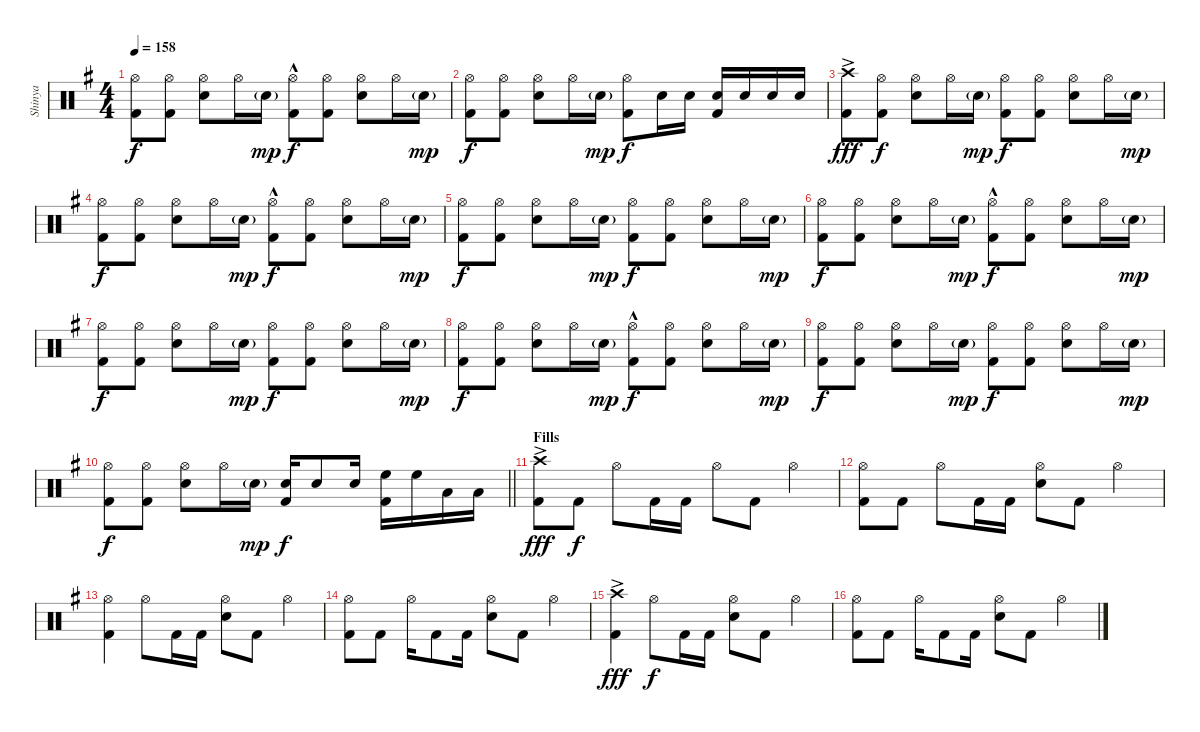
\track ("Shinya" "Shinya") {instrument percussion}
\staff {score}
\articulation defaults
\ts (4 4)
\tempo 158
\clef neutral
\ks g
("Hi-Hat (open)" "Kick (hit) 2").8{dy f} ("Hi-Hat (open)" "Kick (hit) 2").8 ("Hi-Hat (open)" "Snare (hit) 2").8 "Hi-Hat (open)".16 "Snare (hit) 2"{g}.16{dy mp} ("Hi-Hat (open)" "Kick (hit) 2"{hac}).8{dy f} ("Hi-Hat (open)" "Kick (hit) 2").8 ("Hi-Hat (open)" "Snare (hit) 2").8 "Hi-Hat (open)".16 "Snare (hit) 2"{g}.16{dy mp} |
("Hi-Hat (open)" "Kick (hit) 2").8{dy f} ("Hi-Hat (open)" "Kick (hit) 2").8 ("Hi-Hat (open)" "Snare (hit) 2").8 "Hi-Hat (open)".16 "Snare (hit) 2"{g}.16{dy mp} ("Hi-Hat (open)" "Kick (hit) 2").8{dy f} "Snare (hit) 2".16 "Snare (hit) 2".16 ("Snare (hit) 2" "Kick (hit) 2").16 "Snare (hit) 2".16 "Snare (hit) 2".16 "Snare (hit) 2".16 |
("Crash high (hit)"{ac} "Kick (hit) 2").8{dy fff} ("Hi-Hat (open)" "Kick (hit) 2").8{dy f} ("Hi-Hat (open)" "Snare (hit) 2").8 "Hi-Hat (open)".16 "Snare (hit) 2"{g}.16{dy mp} ("Hi-Hat (open)" "Kick (hit) 2").8{dy f} ("Hi-Hat (open)" "Kick (hit) 2").8 ("Hi-Hat (open)" "Snare (hit) 2").8 "Hi-Hat (open)".16 "Snare (hit) 2"{g}.16{dy mp} |
("Hi-Hat (open)" "Kick (hit) 2").8{dy f} ("Hi-Hat (open)" "Kick (hit) 2").8 ("Hi-Hat (open)" "Snare (hit) 2").8 "Hi-Hat (open)".16 "Snare (hit) 2"{g}.16{dy mp} ("Hi-Hat (open)" "Kick (hit) 2"{hac}).8{dy f} ("Hi-Hat (open)" "Kick (hit) 2").8 ("Hi-Hat (open)" "Snare (hit) 2").8 "Hi-Hat (open)".16 "Snare (hit) 2"{g}.16{dy mp} |
("Hi-Hat (open)" "Kick (hit) 2").8{dy f} ("Hi-Hat (open)" "Kick (hit) 2").8 ("Hi-Hat (open)" "Snare (hit) 2").8 "Hi-Hat (open)".16 "Snare (hit) 2"{g}.16{dy mp} ("Hi-Hat (open)" "Kick (hit) 2").8{dy f} ("Hi-Hat (open)" "Kick (hit) 2").8 ("Hi-Hat (open)" "Snare (hit) 2").8 "Hi-Hat (open)".16 "Snare (hit) 2"{g}.16{dy mp} |
("Hi-Hat (open)" "Kick (hit) 2").8{dy f} ("Hi-Hat (open)" "Kick (hit) 2").8 ("Hi-Hat (open)" "Snare (hit) 2").8 "Hi-Hat (open)".16 "Snare (hit) 2"{g}.16{dy mp} ("Hi-Hat (open)" "Kick (hit) 2"{hac}).8{dy f} ("Hi-Hat (open)" "Kick (hit) 2").8 ("Hi-Hat (open)" "Snare (hit) 2").8 "Hi-Hat (open)".16 "Snare (hit) 2"{g}.16{dy mp} |
("Hi-Hat (open)" "Kick (hit) 2").8{dy f} ("Hi-Hat (open)" "Kick (hit) 2").8 ("Hi-Hat (open)" "Snare (hit) 2").8 "Hi-Hat (open)".16 "Snare (hit) 2"{g}.16{dy mp} ("Hi-Hat (open)" "Kick (hit) 2").8{dy f} ("Hi-Hat (open)" "Kick (hit) 2").8 ("Hi-Hat (open)" "Snare (hit) 2").8 "Hi-Hat (open)".16 "Snare (hit) 2"{g}.16{dy mp} |
("Hi-Hat (open)" "Kick (hit) 2").8{dy f} ("Hi-Hat (open)" "Kick (hit) 2").8 ("Hi-Hat (open)" "Snare (hit) 2").8 "Hi-Hat (open)".16 "Snare (hit) 2"{g}.16{dy mp} ("Hi-Hat (open)" "Kick (hit) 2"{hac}).8{dy f} ("Hi-Hat (open)" "Kick (hit) 2").8 ("Hi-Hat (open)" "Snare (hit) 2").8 "Hi-Hat (open)".16 "Snare (hit) 2"{g}.16{dy mp} |
("Hi-Hat (open)" "Kick (hit) 2").8{dy f} ("Hi-Hat (open)" "Kick (hit) 2").8 ("Hi-Hat (open)" "Snare (hit) 2").8 "Hi-Hat (open)".16 "Snare (hit) 2"{g}.16{dy mp} ("Hi-Hat (open)" "Kick (hit) 2").8{dy f} ("Hi-Hat (open)" "Kick (hit) 2").8 ("Hi-Hat (open)" "Snare (hit) 2").8 "Hi-Hat (open)".16 "Snare (hit) 2"{g}.16{dy mp} |
\barLineRight lightlight
("Hi-Hat (open)" "Kick (hit) 2").8{dy f} ("Hi-Hat (open)" "Kick (hit) 2").8 ("Hi-Hat (open)" "Snare (hit) 2").8 "Hi-Hat (open)".16 "Snare (hit) 2"{g}.16{dy mp} ("Snare (hit) 2" "Kick (hit) 2").16{dy f} "Snare (hit) 2".8 "Snare (hit) 2".16 ("High Floor Tom (hit)" "Kick (hit) 2").16 "High Floor Tom (hit)".16 "Low Tom (hit)".16 "Low Tom (hit)".16 |
\section ("" "Fills")
("Crash high (hit)"{ac} "Kick (hit) 2").8{dy fff} "Kick (hit) 2".8{dy f} "Hi-Hat (open)".8 "Kick (hit) 2".16 "Kick (hit) 2".16 "Hi-Hat (open)".8 "Kick (hit) 2".8 "Hi-Hat (open)".4 |
("Hi-Hat (open)" "Kick (hit) 2").8 "Kick (hit) 2".8 "Hi-Hat (open)".8 "Kick (hit) 2".16 "Kick (hit) 2".16 ("Hi-Hat (open)" "Snare (hit) 2").8 "Kick (hit) 2".8 "Hi-Hat (open)".4 |
("Hi-Hat (open)" "Kick (hit) 2").4 "Hi-Hat (open)".8 "Kick (hit) 2".16 "Kick (hit) 2".16 ("Hi-Hat (open)" "Snare (hit) 2").8 "Kick (hit) 2".8 "Hi-Hat (open)".4 |
("Hi-Hat (open)" "Kick (hit) 2").8 "Kick (hit) 2".8 "Hi-Hat (open)".16 "Kick (hit) 2".8 "Kick (hit) 2".16 ("Hi-Hat (open)" "Snare (hit) 2").8 "Kick (hit) 2".8 "Hi-Hat (open)".4 |
("Crash high (hit)"{ac} "Kick (hit) 2").4{dy fff} "Hi-Hat (open)".8{dy f} "Kick (hit) 2".16 "Kick (hit) 2".16 ("Hi-Hat (open)" "Snare (hit) 2").8 "Kick (hit) 2".8 "Hi-Hat (open)".4 |
("Hi-Hat (open)" "Kick (hit) 2").8 "Kick (hit) 2".8 "Hi-Hat (open)".16 "Kick (hit) 2".8 "Kick (hit) 2".16 ("Hi-Hat (open)" "Snare (hit) 2").8 "Kick (hit) 2".8 "Hi-Hat (open)".4
